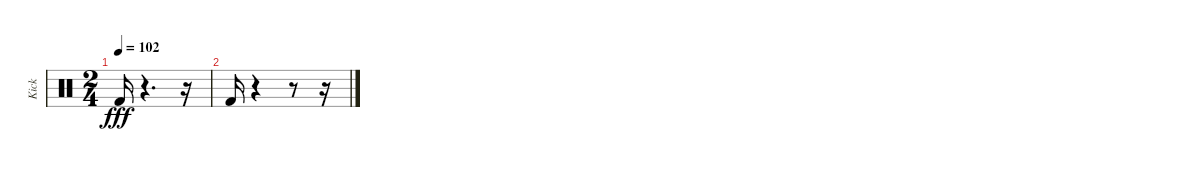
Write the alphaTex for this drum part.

\track ("Kick" "Kick") {instrument percussion}
\staff {score}
\articulation defaults
\ts (2 4)
\tempo 102
\clef neutral
\ks c "Kick (hit) 2".16{dy fff}
r.4{d} r.16 |
"Kick (hit) 2".16 r.4 r.8 r.16
